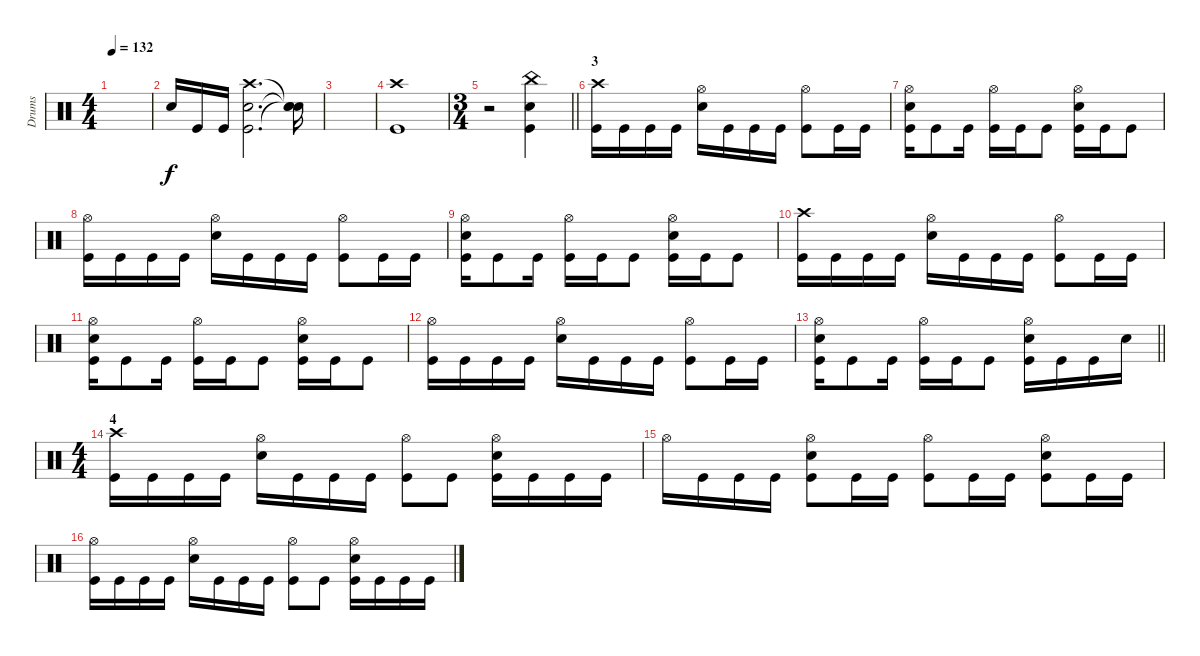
\track ("Drums" "Drums") {instrument percussion}
\staff
\articulation defaults
\ts (4 4)
\tempo 132
\clef neutral
\ks c
|
"Electric Snare (hit)".16 "Kick (hit)".16 "Kick (hit)".16 ("Crash high (hit)" "Electric Snare (hit)" "Kick (hit)").2{d} ("Snare (hit)"{t} "Snare (hit)"{t} "Snare (hit)"{t}).16 |
|
("Crash high (hit)" "Kick (hit)").1 |
\ts (3 4)
\barLineRight lightlight
r.2 ("China (hit)" "Electric Snare (hit)" "Kick (hit)").4 |
\section ("" "3")
("Crash high (hit)" "Kick (hit)").16 "Kick (hit)".16 "Kick (hit)".16 "Kick (hit)".16 ("Hi-Hat (open)" "Electric Snare (hit)").16 "Kick (hit)".16 "Kick (hit)".16 "Kick (hit)".16 ("Hi-Hat (open)" "Kick (hit)").8 "Kick (hit)".16 "Kick (hit)".16 |
("Hi-Hat (open)" "Electric Snare (hit)" "Kick (hit)").16 "Kick (hit)".8 "Kick (hit)".16 ("Hi-Hat (open)" "Kick (hit)").16 "Kick (hit)".16 "Kick (hit)".8 ("Hi-Hat (open)" "Electric Snare (hit)" "Kick (hit)").16 "Kick (hit)".16 "Kick (hit)".8 |
("Hi-Hat (open)" "Kick (hit)").16 "Kick (hit)".16 "Kick (hit)".16 "Kick (hit)".16 ("Hi-Hat (open)" "Electric Snare (hit)").16 "Kick (hit)".16 "Kick (hit)".16 "Kick (hit)".16 ("Hi-Hat (open)" "Kick (hit)").8 "Kick (hit)".16 "Kick (hit)".16 |
("Hi-Hat (open)" "Electric Snare (hit)" "Kick (hit)").16 "Kick (hit)".8 "Kick (hit)".16 ("Hi-Hat (open)" "Kick (hit)").16 "Kick (hit)".16 "Kick (hit)".8 ("Hi-Hat (open)" "Electric Snare (hit)" "Kick (hit)").16 "Kick (hit)".16 "Kick (hit)".8 |
("Crash high (hit)" "Kick (hit)").16 "Kick (hit)".16 "Kick (hit)".16 "Kick (hit)".16 ("Hi-Hat (open)" "Electric Snare (hit)").16 "Kick (hit)".16 "Kick (hit)".16 "Kick (hit)".16 ("Hi-Hat (open)" "Kick (hit)").8 "Kick (hit)".16 "Kick (hit)".16 |
("Hi-Hat (open)" "Electric Snare (hit)" "Kick (hit)").16 "Kick (hit)".8 "Kick (hit)".16 ("Hi-Hat (open)" "Kick (hit)").16 "Kick (hit)".16 "Kick (hit)".8 ("Hi-Hat (open)" "Electric Snare (hit)" "Kick (hit)").16 "Kick (hit)".16 "Kick (hit)".8 |
("Hi-Hat (open)" "Kick (hit)").16 "Kick (hit)".16 "Kick (hit)".16 "Kick (hit)".16 ("Hi-Hat (open)" "Electric Snare (hit)").16 "Kick (hit)".16 "Kick (hit)".16 "Kick (hit)".16 ("Hi-Hat (open)" "Kick (hit)").8 "Kick (hit)".16 "Kick (hit)".16 |
\barLineRight lightlight
("Hi-Hat (open)" "Electric Snare (hit)" "Kick (hit)").16 "Kick (hit)".8 "Kick (hit)".16 ("Hi-Hat (open)" "Kick (hit)").16 "Kick (hit)".16 "Kick (hit)".8 ("Hi-Hat (open)" "Electric Snare (hit)" "Kick (hit)").16 "Kick (hit)".16 "Kick (hit)".16 "Electric Snare (hit)".16 |
\ts (4 4)
\section ("" "4")
("Crash high (hit)" "Kick (hit)").16 "Kick (hit)".16 "Kick (hit)".16 "Kick (hit)".16 ("Hi-Hat (open)" "Electric Snare (hit)").16 "Kick (hit)".16 "Kick (hit)".16 "Kick (hit)".16 ("Hi-Hat (open)" "Kick (hit)").8 "Kick (hit)".8 ("Hi-Hat (open)" "Electric Snare (hit)" "Kick (hit)").16 "Kick (hit)".16 "Kick (hit)".16 "Kick (hit)".16 |
"Hi-Hat (open)".16 "Kick (hit)".16 "Kick (hit)".16 "Kick (hit)".16 ("Hi-Hat (open)" "Electric Snare (hit)" "Kick (hit)").8 "Kick (hit)".16 "Kick (hit)".16 ("Hi-Hat (open)" "Kick (hit)").8 "Kick (hit)".16 "Kick (hit)".16 ("Hi-Hat (open)" "Electric Snare (hit)" "Kick (hit)").8 "Kick (hit)".16 "Kick (hit)".16 |
("Hi-Hat (open)" "Kick (hit)").16 "Kick (hit)".16 "Kick (hit)".16 "Kick (hit)".16 ("Hi-Hat (open)" "Electric Snare (hit)").16 "Kick (hit)".16 "Kick (hit)".16 "Kick (hit)".16 ("Hi-Hat (open)" "Kick (hit)").8 "Kick (hit)".8 ("Hi-Hat (open)" "Electric Snare (hit)" "Kick (hit)").16 "Kick (hit)".16 "Kick (hit)".16 "Kick (hit)".16
